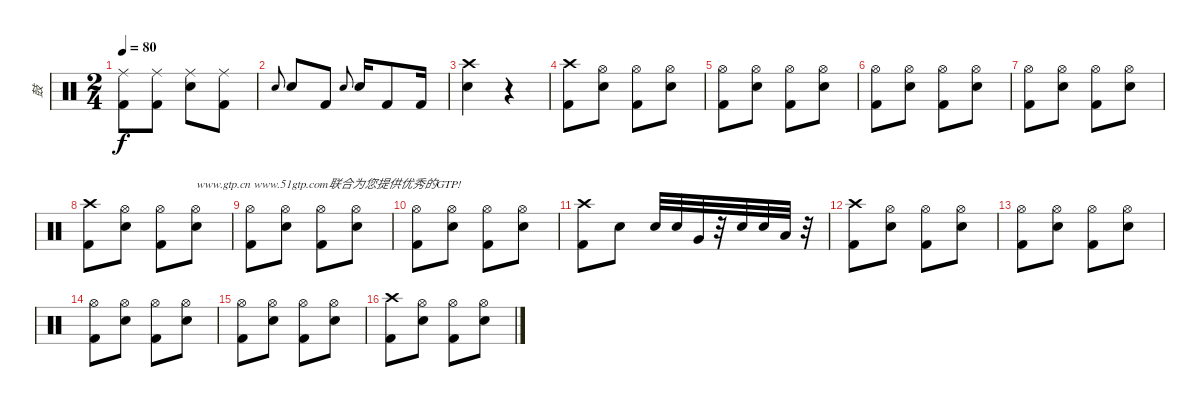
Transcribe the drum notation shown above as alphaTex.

\track ("鼓" "鼓") {instrument percussion}
\staff {score}
\articulation defaults
\ts (2 4)
\tempo 80
\clef neutral
\ks c
("Ride (middle)" "Kick (hit) 2").8{dy f} ("Ride (middle)" "Kick (hit) 2").8 ("Ride (middle)" "Electric Snare (hit)").8 ("Ride (middle)" "Kick (hit) 2").8 |
"Electric Snare (hit)".8{gr onbeat} "Electric Snare (hit)".8 "Kick (hit) 2".8 "Electric Snare (hit)".8{gr onbeat} "Electric Snare (hit)".16 "Kick (hit) 2".8 "Kick (hit) 2".16 |
("Crash high (hit)" "Electric Snare (hit)").4 r.4 |
("Crash high (hit)" "Kick (hit) 2").8 ("Hi-Hat (open)" "Electric Snare (hit)").8 ("Hi-Hat (open)" "Kick (hit) 2").8 ("Hi-Hat (open)" "Electric Snare (hit)").8 |
("Hi-Hat (open)" "Kick (hit) 2").8 ("Hi-Hat (open)" "Electric Snare (hit)").8 ("Hi-Hat (open)" "Kick (hit) 2").8 ("Hi-Hat (open)" "Electric Snare (hit)").8 |
("Hi-Hat (open)" "Kick (hit) 2").8 ("Hi-Hat (open)" "Electric Snare (hit)").8 ("Hi-Hat (open)" "Kick (hit) 2").8 ("Hi-Hat (open)" "Electric Snare (hit)").8 |
("Hi-Hat (open)" "Kick (hit) 2").8 ("Hi-Hat (open)" "Electric Snare (hit)").8 ("Hi-Hat (open)" "Kick (hit) 2").8 ("Hi-Hat (open)" "Electric Snare (hit)").8 |
("Crash high (hit)" "Kick (hit) 2").8 ("Hi-Hat (open)" "Electric Snare (hit)").8 ("Hi-Hat (open)" "Kick (hit) 2").8 ("Hi-Hat (open)" "Electric Snare (hit)").8{txt "www.gtp.cn www.51gtp.com联合为您提供优秀的GTP!"} |
("Hi-Hat (open)" "Kick (hit) 2").8 ("Hi-Hat (open)" "Electric Snare (hit)").8 ("Hi-Hat (open)" "Kick (hit) 2").8 ("Hi-Hat (open)" "Electric Snare (hit)").8 |
("Hi-Hat (open)" "Kick (hit) 2").8 ("Hi-Hat (open)" "Electric Snare (hit)").8 ("Hi-Hat (open)" "Kick (hit) 2").8 ("Hi-Hat (open)" "Electric Snare (hit)").8 |
("Crash high (hit)" "Kick (hit) 2").8 "Electric Snare (hit)".8 "Electric Snare (hit)".32 "Electric Snare (hit)".32 "Very Low Tom (hit)".32 r.32 "Electric Snare (hit)".32 "Electric Snare (hit)".32 "Low Floor Tom (hit)".32 r.32 |
("Crash high (hit)" "Kick (hit) 2").8 ("Hi-Hat (open)" "Electric Snare (hit)").8 ("Hi-Hat (open)" "Kick (hit) 2").8 ("Hi-Hat (open)" "Electric Snare (hit)").8 |
("Hi-Hat (open)" "Kick (hit) 2").8 ("Hi-Hat (open)" "Electric Snare (hit)").8 ("Hi-Hat (open)" "Kick (hit) 2").8 ("Hi-Hat (open)" "Electric Snare (hit)").8 |
("Hi-Hat (open)" "Kick (hit) 2").8 ("Hi-Hat (open)" "Electric Snare (hit)").8 ("Hi-Hat (open)" "Kick (hit) 2").8 ("Hi-Hat (open)" "Electric Snare (hit)").8 |
("Hi-Hat (open)" "Kick (hit) 2").8 ("Hi-Hat (open)" "Electric Snare (hit)").8 ("Hi-Hat (open)" "Kick (hit) 2").8 ("Hi-Hat (open)" "Electric Snare (hit)").8 |
("Crash high (hit)" "Kick (hit) 2").8 ("Hi-Hat (open)" "Electric Snare (hit)").8 ("Hi-Hat (open)" "Kick (hit) 2").8 ("Hi-Hat (open)" "Electric Snare (hit)").8
